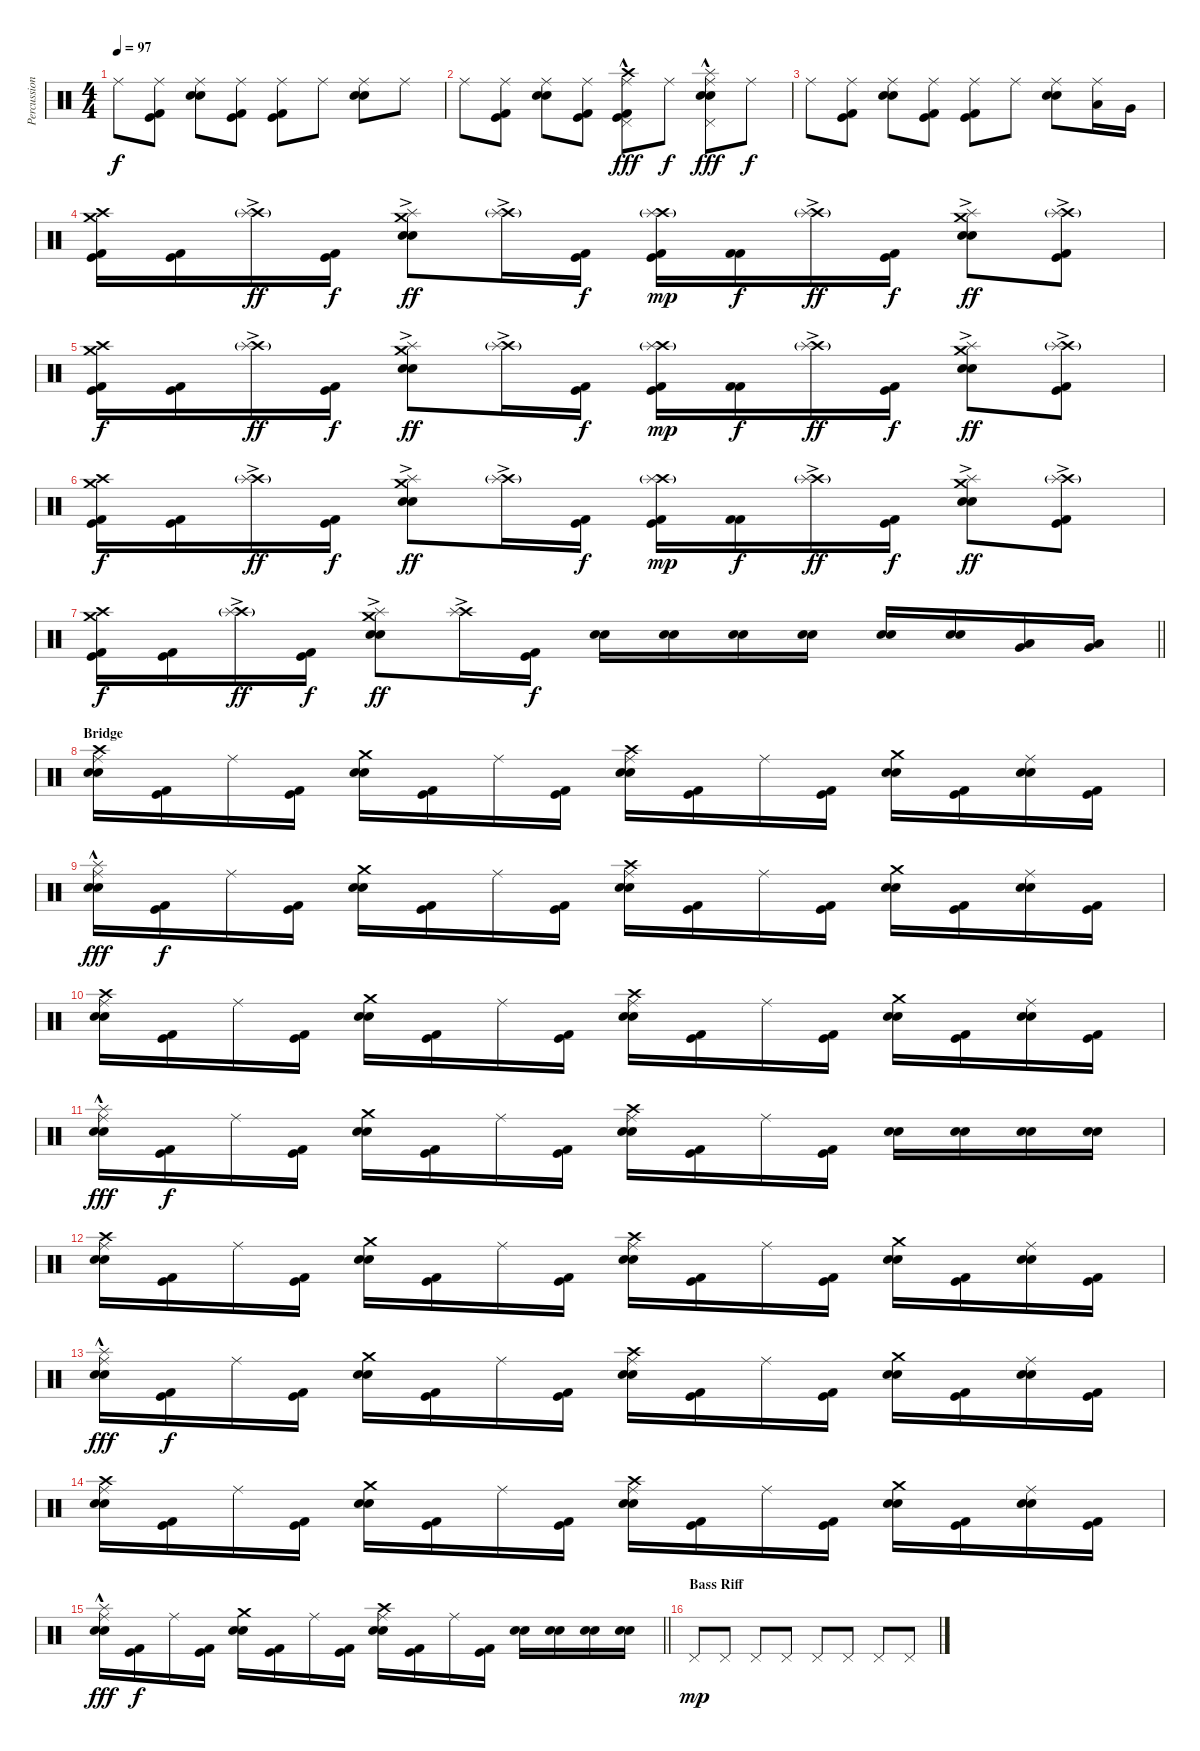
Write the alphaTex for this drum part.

\track ("Percussion" "Percussion") {instrument percussion}
\staff {score}
\articulation defaults
\ts (4 4)
\tempo 97
\clef neutral
\ks c "Ride (middle)".8{dy f}
("Kick (hit) 2" "Kick (hit)" "Ride (middle)").8 ("Electric Snare (hit)" "Snare (hit) 2" "Ride (middle)").8 ("Kick (hit) 2" "Kick (hit)" "Ride (middle)").8 ("Kick (hit) 2" "Kick (hit)" "Ride (middle)").8 "Ride (middle)".8 ("Electric Snare (hit)" "Snare (hit) 2" "Ride (middle)").8 "Ride (middle)".8 |
"Ride (middle)".8 ("Kick (hit) 2" "Kick (hit)" "Ride (middle)").8 ("Electric Snare (hit)" "Snare (hit) 2" "Ride (middle)").8 ("Kick (hit) 2" "Kick (hit)" "Ride (middle)").8 ("Kick (hit) 2" "Kick (hit)" "Ride (middle)" "Pedal Hi-Hat (hit)" "Crash high (hit)"{hac}).8{dy fff} "Ride (middle)".8{dy f} ("Electric Snare (hit)" "Snare (hit) 2" "Ride (middle)" "Pedal Hi-Hat (hit)" "Splash (hit)"{hac}).8{dy fff} "Ride (middle)".8{dy f} |
"Ride (middle)".8 ("Kick (hit) 2" "Kick (hit)" "Ride (middle)").8 ("Electric Snare (hit)" "Snare (hit) 2" "Ride (middle)").8 ("Kick (hit) 2" "Kick (hit)" "Ride (middle)").8 ("Kick (hit) 2" "Kick (hit)" "Ride (middle)").8 "Ride (middle)".8 ("Electric Snare (hit)" "Snare (hit) 2" "Ride (middle)").8 ("Low Tom (hit)" "Ride (middle)").16 "Very Low Tom (hit)".16 |
("Kick (hit) 2" "Kick (hit)" "Crash high (hit)" "Crash medium (hit)").16 ("Kick (hit) 2" "Kick (hit)").16 ("Crash high (hit)"{g} "Splash (hit)"{ac}).16{dy ff} ("Kick (hit) 2" "Kick (hit)").16{dy f} ("Electric Snare (hit)" "Snare (hit) 2" "Crash medium (hit)" "Splash (hit)"{ac}).8{dy ff} ("Crash high (hit)"{g} "Splash (hit)"{ac}).16 ("Kick (hit) 2" "Kick (hit)").16{dy f} ("Kick (hit) 2" "Kick (hit)" "Crash high (hit)"{g} "Splash (hit)"{g}).16{dy mp} ("Kick (hit) 2" "Kick (hit) 2").16{dy f} ("Crash high (hit)"{g} "Splash (hit)"{ac}).16{dy ff} ("Kick (hit) 2" "Kick (hit)").16{dy f} ("Electric Snare (hit)" "Snare (hit) 2" "Crash medium (hit)" "Splash (hit)"{ac}).8{dy ff} ("Kick (hit) 2" "Kick (hit)" "Crash high (hit)"{g} "Splash (hit)"{ac}).8 |
("Kick (hit) 2" "Kick (hit)" "Crash high (hit)" "Crash medium (hit)").16{dy f} ("Kick (hit) 2" "Kick (hit)").16 ("Crash high (hit)"{g} "Splash (hit)"{ac}).16{dy ff} ("Kick (hit) 2" "Kick (hit)").16{dy f} ("Electric Snare (hit)" "Snare (hit) 2" "Crash medium (hit)" "Splash (hit)"{ac}).8{dy ff} ("Crash high (hit)"{g} "Splash (hit)"{ac}).16 ("Kick (hit) 2" "Kick (hit)").16{dy f} ("Kick (hit) 2" "Kick (hit)" "Crash high (hit)"{g} "Splash (hit)"{g}).16{dy mp} ("Kick (hit) 2" "Kick (hit) 2").16{dy f} ("Crash high (hit)"{g} "Splash (hit)"{ac}).16{dy ff} ("Kick (hit) 2" "Kick (hit)").16{dy f} ("Electric Snare (hit)" "Snare (hit) 2" "Crash medium (hit)" "Splash (hit)"{ac}).8{dy ff} ("Kick (hit) 2" "Kick (hit)" "Crash high (hit)"{g} "Splash (hit)"{ac}).8 |
("Kick (hit) 2" "Kick (hit)" "Crash high (hit)" "Crash medium (hit)").16{dy f} ("Kick (hit) 2" "Kick (hit)").16 ("Crash high (hit)"{g} "Splash (hit)"{ac}).16{dy ff} ("Kick (hit) 2" "Kick (hit)").16{dy f} ("Electric Snare (hit)" "Snare (hit) 2" "Crash medium (hit)" "Splash (hit)"{ac}).8{dy ff} ("Crash high (hit)"{g} "Splash (hit)"{ac}).16 ("Kick (hit) 2" "Kick (hit)").16{dy f} ("Kick (hit) 2" "Kick (hit)" "Crash high (hit)"{g} "Splash (hit)"{g}).16{dy mp} ("Kick (hit) 2" "Kick (hit) 2").16{dy f} ("Crash high (hit)"{g} "Splash (hit)"{ac}).16{dy ff} ("Kick (hit) 2" "Kick (hit)").16{dy f} ("Electric Snare (hit)" "Snare (hit) 2" "Crash medium (hit)" "Splash (hit)"{ac}).8{dy ff} ("Kick (hit) 2" "Kick (hit)" "Crash high (hit)"{g} "Splash (hit)"{ac}).8 |
\barLineRight lightlight
("Kick (hit) 2" "Kick (hit)" "Crash high (hit)" "Crash medium (hit)").16{dy f} ("Kick (hit) 2" "Kick (hit)").16 ("Crash high (hit)"{g} "Splash (hit)"{ac}).16{dy ff} ("Kick (hit) 2" "Kick (hit)").16{dy f} ("Electric Snare (hit)" "Snare (hit) 2" "Crash medium (hit)" "Splash (hit)"{ac}).8{dy ff} ("Crash high (hit)" "Splash (hit)"{ac}).16 ("Kick (hit) 2" "Kick (hit)").16{dy f} ("Electric Snare (hit)" "Snare (hit) 2").16 ("Electric Snare (hit)" "Snare (hit) 2").16 ("Electric Snare (hit)" "Snare (hit) 2").16 ("Electric Snare (hit)" "Snare (hit) 2").16 ("Electric Snare (hit)" "Snare (hit) 2").16 ("Electric Snare (hit)" "Snare (hit) 2").16 ("Low Tom (hit)" "Very Low Tom (hit)").16 ("Very Low Tom (hit)" "Low Floor Tom (hit)").16 |
\section ("" "Bridge")
("Electric Snare (hit)" "Snare (hit) 2" "Ride (middle)" "Crash high (hit)").16 ("Kick (hit) 2" "Kick (hit)").16 "Ride (middle)".16 ("Kick (hit) 2" "Kick (hit)").16 ("Electric Snare (hit)" "Snare (hit) 2" "Crash medium (hit)").16 ("Kick (hit) 2" "Kick (hit)").16 "Ride (middle)".16 ("Kick (hit) 2" "Kick (hit)").16 ("Electric Snare (hit)" "Snare (hit) 2" "Ride (middle)" "Crash high (hit)").16 ("Kick (hit) 2" "Kick (hit)").16 "Ride (middle)".16 ("Kick (hit) 2" "Kick (hit)").16 ("Electric Snare (hit)" "Snare (hit) 2" "Crash medium (hit)").16 ("Kick (hit) 2" "Kick (hit)").16 ("Electric Snare (hit)" "Snare (hit) 2" "Ride (middle)").16 ("Kick (hit) 2" "Kick (hit)").16 |
("Electric Snare (hit)" "Snare (hit) 2" "Ride (middle)" "Splash (hit)"{hac}).16{dy fff} ("Kick (hit) 2" "Kick (hit)").16{dy f} "Ride (middle)".16 ("Kick (hit) 2" "Kick (hit)").16 ("Electric Snare (hit)" "Snare (hit) 2" "Crash medium (hit)").16 ("Kick (hit) 2" "Kick (hit)").16 "Ride (middle)".16 ("Kick (hit) 2" "Kick (hit)").16 ("Electric Snare (hit)" "Snare (hit) 2" "Ride (middle)" "Crash high (hit)").16 ("Kick (hit) 2" "Kick (hit)").16 "Ride (middle)".16 ("Kick (hit) 2" "Kick (hit)").16 ("Electric Snare (hit)" "Snare (hit) 2" "Crash medium (hit)").16 ("Kick (hit) 2" "Kick (hit)").16 ("Electric Snare (hit)" "Snare (hit) 2" "Ride (middle)").16 ("Kick (hit) 2" "Kick (hit)").16 |
("Electric Snare (hit)" "Snare (hit) 2" "Ride (middle)" "Crash high (hit)").16 ("Kick (hit) 2" "Kick (hit)").16 "Ride (middle)".16 ("Kick (hit) 2" "Kick (hit)").16 ("Electric Snare (hit)" "Snare (hit) 2" "Crash medium (hit)").16 ("Kick (hit) 2" "Kick (hit)").16 "Ride (middle)".16 ("Kick (hit) 2" "Kick (hit)").16 ("Electric Snare (hit)" "Snare (hit) 2" "Ride (middle)" "Crash high (hit)").16 ("Kick (hit) 2" "Kick (hit)").16 "Ride (middle)".16 ("Kick (hit) 2" "Kick (hit)").16 ("Electric Snare (hit)" "Snare (hit) 2" "Crash medium (hit)").16 ("Kick (hit) 2" "Kick (hit)").16 ("Electric Snare (hit)" "Snare (hit) 2" "Ride (middle)").16 ("Kick (hit) 2" "Kick (hit)").16 |
("Electric Snare (hit)" "Snare (hit) 2" "Ride (middle)" "Splash (hit)"{hac}).16{dy fff} ("Kick (hit) 2" "Kick (hit)").16{dy f} "Ride (middle)".16 ("Kick (hit) 2" "Kick (hit)").16 ("Electric Snare (hit)" "Snare (hit) 2" "Crash medium (hit)").16 ("Kick (hit) 2" "Kick (hit)").16 "Ride (middle)".16 ("Kick (hit) 2" "Kick (hit)").16 ("Electric Snare (hit)" "Snare (hit) 2" "Ride (middle)" "Crash high (hit)").16 ("Kick (hit) 2" "Kick (hit)").16 "Ride (middle)".16 ("Kick (hit) 2" "Kick (hit)").16 ("Electric Snare (hit)" "Snare (hit) 2").16 ("Electric Snare (hit)" "Snare (hit) 2").16 ("Electric Snare (hit)" "Snare (hit) 2").16 ("Electric Snare (hit)" "Snare (hit) 2").16 |
("Electric Snare (hit)" "Snare (hit) 2" "Ride (middle)" "Crash high (hit)").16 ("Kick (hit) 2" "Kick (hit)").16 "Ride (middle)".16 ("Kick (hit) 2" "Kick (hit)").16 ("Electric Snare (hit)" "Snare (hit) 2" "Crash medium (hit)").16 ("Kick (hit) 2" "Kick (hit)").16 "Ride (middle)".16 ("Kick (hit) 2" "Kick (hit)").16 ("Electric Snare (hit)" "Snare (hit) 2" "Ride (middle)" "Crash high (hit)").16 ("Kick (hit) 2" "Kick (hit)").16 "Ride (middle)".16 ("Kick (hit) 2" "Kick (hit)").16 ("Electric Snare (hit)" "Snare (hit) 2" "Crash medium (hit)").16 ("Kick (hit) 2" "Kick (hit)").16 ("Electric Snare (hit)" "Snare (hit) 2" "Ride (middle)").16 ("Kick (hit) 2" "Kick (hit)").16 |
("Electric Snare (hit)" "Snare (hit) 2" "Ride (middle)" "Splash (hit)"{hac}).16{dy fff} ("Kick (hit) 2" "Kick (hit)").16{dy f} "Ride (middle)".16 ("Kick (hit) 2" "Kick (hit)").16 ("Electric Snare (hit)" "Snare (hit) 2" "Crash medium (hit)").16 ("Kick (hit) 2" "Kick (hit)").16 "Ride (middle)".16 ("Kick (hit) 2" "Kick (hit)").16 ("Electric Snare (hit)" "Snare (hit) 2" "Ride (middle)" "Crash high (hit)").16 ("Kick (hit) 2" "Kick (hit)").16 "Ride (middle)".16 ("Kick (hit) 2" "Kick (hit)").16 ("Electric Snare (hit)" "Snare (hit) 2" "Crash medium (hit)").16 ("Kick (hit) 2" "Kick (hit)").16 ("Electric Snare (hit)" "Snare (hit) 2" "Ride (middle)").16 ("Kick (hit) 2" "Kick (hit)").16 |
("Electric Snare (hit)" "Snare (hit) 2" "Ride (middle)" "Crash high (hit)").16 ("Kick (hit) 2" "Kick (hit)").16 "Ride (middle)".16 ("Kick (hit) 2" "Kick (hit)").16 ("Electric Snare (hit)" "Snare (hit) 2" "Crash medium (hit)").16 ("Kick (hit) 2" "Kick (hit)").16 "Ride (middle)".16 ("Kick (hit) 2" "Kick (hit)").16 ("Electric Snare (hit)" "Snare (hit) 2" "Ride (middle)" "Crash high (hit)").16 ("Kick (hit) 2" "Kick (hit)").16 "Ride (middle)".16 ("Kick (hit) 2" "Kick (hit)").16 ("Electric Snare (hit)" "Snare (hit) 2" "Crash medium (hit)").16 ("Kick (hit) 2" "Kick (hit)").16 ("Electric Snare (hit)" "Snare (hit) 2" "Ride (middle)").16 ("Kick (hit) 2" "Kick (hit)").16 |
\barLineRight lightlight
("Electric Snare (hit)" "Snare (hit) 2" "Ride (middle)" "Splash (hit)"{hac}).16{dy fff} ("Kick (hit) 2" "Kick (hit)").16{dy f} "Ride (middle)".16 ("Kick (hit) 2" "Kick (hit)").16 ("Electric Snare (hit)" "Snare (hit) 2" "Crash medium (hit)").16 ("Kick (hit) 2" "Kick (hit)").16 "Ride (middle)".16 ("Kick (hit) 2" "Kick (hit)").16 ("Electric Snare (hit)" "Snare (hit) 2" "Ride (middle)" "Crash high (hit)").16 ("Kick (hit) 2" "Kick (hit)").16 "Ride (middle)".16 ("Kick (hit) 2" "Kick (hit)").16 ("Electric Snare (hit)" "Snare (hit) 2").16 ("Electric Snare (hit)" "Snare (hit) 2").16 ("Electric Snare (hit)" "Snare (hit) 2").16 ("Electric Snare (hit)" "Snare (hit) 2").16 |
\section ("" "Bass Riff")
"Pedal Hi-Hat (hit)".8{dy mp} "Pedal Hi-Hat (hit)".8 "Pedal Hi-Hat (hit)".8 "Pedal Hi-Hat (hit)".8 "Pedal Hi-Hat (hit)".8 "Pedal Hi-Hat (hit)".8 "Pedal Hi-Hat (hit)".8 "Pedal Hi-Hat (hit)".8
